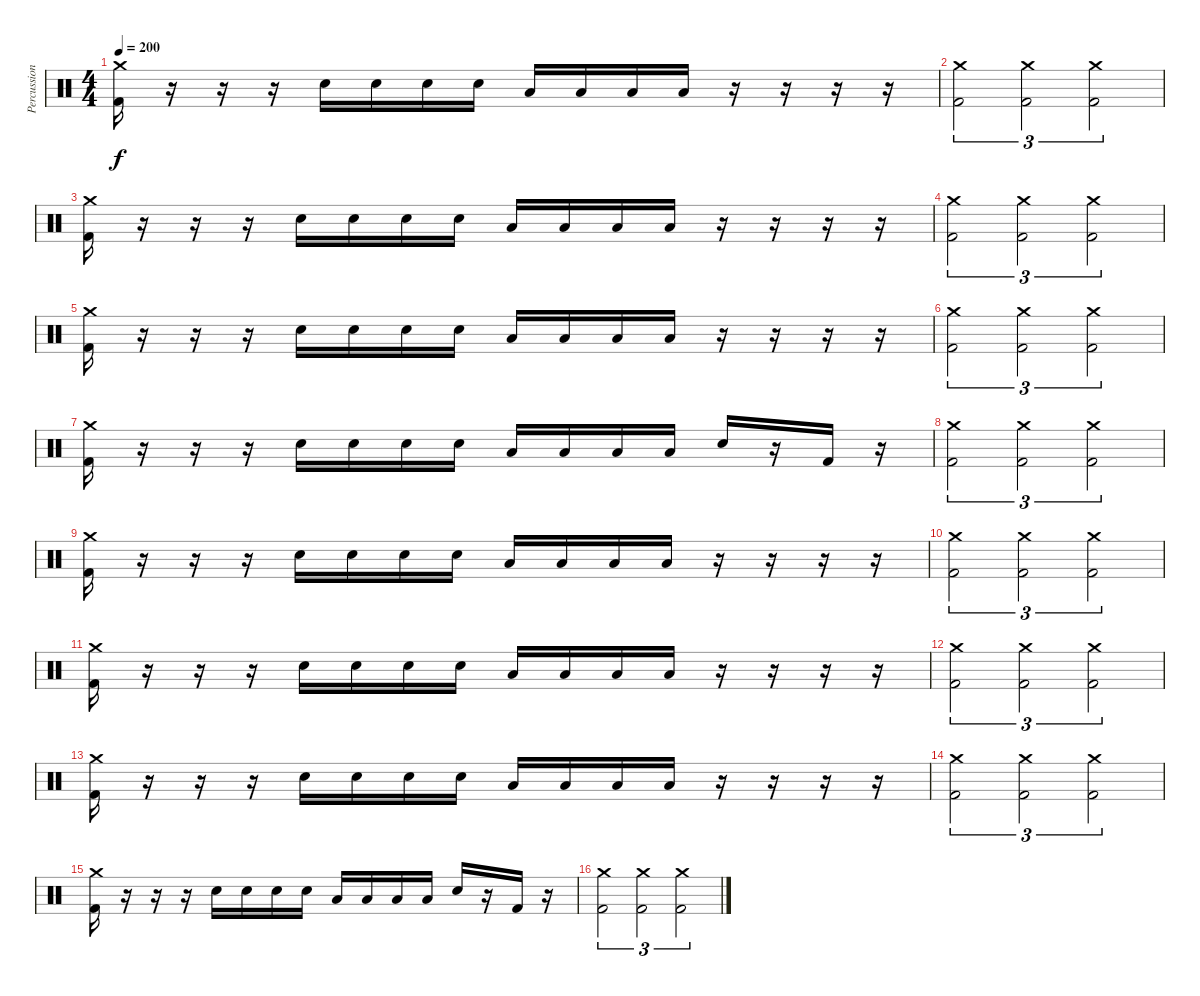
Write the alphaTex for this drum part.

\track ("Percussion" "Percussion") {instrument percussion}
\staff {score}
\articulation defaults
\ts (4 4)
\tempo 200
\clef neutral
\ks c
("Crash medium (hit)" "Kick (hit) 2").16{dy f} r.16 r.16 r.16 "Electric Snare (hit)".16 "Electric Snare (hit)".16 "Electric Snare (hit)".16 "Electric Snare (hit)".16 "Low Floor Tom (hit)".16 "Low Floor Tom (hit)".16 "Low Floor Tom (hit)".16 "Low Floor Tom (hit)".16 r.16 r.16 r.16 r.16 |
("Crash medium (hit)" "Kick (hit) 2").2{tu (3 2)} ("Crash medium (hit)" "Kick (hit) 2").2{tu (3 2)} ("Crash medium (hit)" "Kick (hit) 2").2{tu (3 2)} |
("Crash medium (hit)" "Kick (hit) 2").16 r.16 r.16 r.16 "Electric Snare (hit)".16 "Electric Snare (hit)".16 "Electric Snare (hit)".16 "Electric Snare (hit)".16 "Low Floor Tom (hit)".16 "Low Floor Tom (hit)".16 "Low Floor Tom (hit)".16 "Low Floor Tom (hit)".16 r.16 r.16 r.16 r.16 |
("Crash medium (hit)" "Kick (hit) 2").2{tu (3 2)} ("Crash medium (hit)" "Kick (hit) 2").2{tu (3 2)} ("Crash medium (hit)" "Kick (hit) 2").2{tu (3 2)} |
("Crash medium (hit)" "Kick (hit) 2").16 r.16 r.16 r.16 "Electric Snare (hit)".16 "Electric Snare (hit)".16 "Electric Snare (hit)".16 "Electric Snare (hit)".16 "Low Floor Tom (hit)".16 "Low Floor Tom (hit)".16 "Low Floor Tom (hit)".16 "Low Floor Tom (hit)".16 r.16 r.16 r.16 r.16 |
("Crash medium (hit)" "Kick (hit) 2").2{tu (3 2)} ("Crash medium (hit)" "Kick (hit) 2").2{tu (3 2)} ("Crash medium (hit)" "Kick (hit) 2").2{tu (3 2)} |
("Crash medium (hit)" "Kick (hit) 2").16 r.16 r.16 r.16 "Electric Snare (hit)".16 "Electric Snare (hit)".16 "Electric Snare (hit)".16 "Electric Snare (hit)".16 "Low Floor Tom (hit)".16 "Low Floor Tom (hit)".16 "Low Floor Tom (hit)".16 "Low Floor Tom (hit)".16 "Electric Snare (hit)".16 r.16 "Kick (hit) 2".16 r.16 |
("Crash medium (hit)" "Kick (hit) 2").2{tu (3 2)} ("Crash medium (hit)" "Kick (hit) 2").2{tu (3 2)} ("Crash medium (hit)" "Kick (hit) 2").2{tu (3 2)} |
("Crash medium (hit)" "Kick (hit) 2").16 r.16 r.16 r.16 "Electric Snare (hit)".16 "Electric Snare (hit)".16 "Electric Snare (hit)".16 "Electric Snare (hit)".16 "Low Floor Tom (hit)".16 "Low Floor Tom (hit)".16 "Low Floor Tom (hit)".16 "Low Floor Tom (hit)".16 r.16 r.16 r.16 r.16 |
("Crash medium (hit)" "Kick (hit) 2").2{tu (3 2)} ("Crash medium (hit)" "Kick (hit) 2").2{tu (3 2)} ("Crash medium (hit)" "Kick (hit) 2").2{tu (3 2)} |
("Crash medium (hit)" "Kick (hit) 2").16 r.16 r.16 r.16 "Electric Snare (hit)".16 "Electric Snare (hit)".16 "Electric Snare (hit)".16 "Electric Snare (hit)".16 "Low Floor Tom (hit)".16 "Low Floor Tom (hit)".16 "Low Floor Tom (hit)".16 "Low Floor Tom (hit)".16 r.16 r.16 r.16 r.16 |
("Crash medium (hit)" "Kick (hit) 2").2{tu (3 2)} ("Crash medium (hit)" "Kick (hit) 2").2{tu (3 2)} ("Crash medium (hit)" "Kick (hit) 2").2{tu (3 2)} |
("Crash medium (hit)" "Kick (hit) 2").16 r.16 r.16 r.16 "Electric Snare (hit)".16 "Electric Snare (hit)".16 "Electric Snare (hit)".16 "Electric Snare (hit)".16 "Low Floor Tom (hit)".16 "Low Floor Tom (hit)".16 "Low Floor Tom (hit)".16 "Low Floor Tom (hit)".16 r.16 r.16 r.16 r.16 |
("Crash medium (hit)" "Kick (hit) 2").2{tu (3 2)} ("Crash medium (hit)" "Kick (hit) 2").2{tu (3 2)} ("Crash medium (hit)" "Kick (hit) 2").2{tu (3 2)} |
("Crash medium (hit)" "Kick (hit) 2").16 r.16 r.16 r.16 "Electric Snare (hit)".16 "Electric Snare (hit)".16 "Electric Snare (hit)".16 "Electric Snare (hit)".16 "Low Floor Tom (hit)".16 "Low Floor Tom (hit)".16 "Low Floor Tom (hit)".16 "Low Floor Tom (hit)".16 "Electric Snare (hit)".16 r.16 "Kick (hit) 2".16 r.16 |
("Crash medium (hit)" "Kick (hit) 2").2{tu (3 2)} ("Crash medium (hit)" "Kick (hit) 2").2{tu (3 2)} ("Crash medium (hit)" "Kick (hit) 2").2{tu (3 2)}
